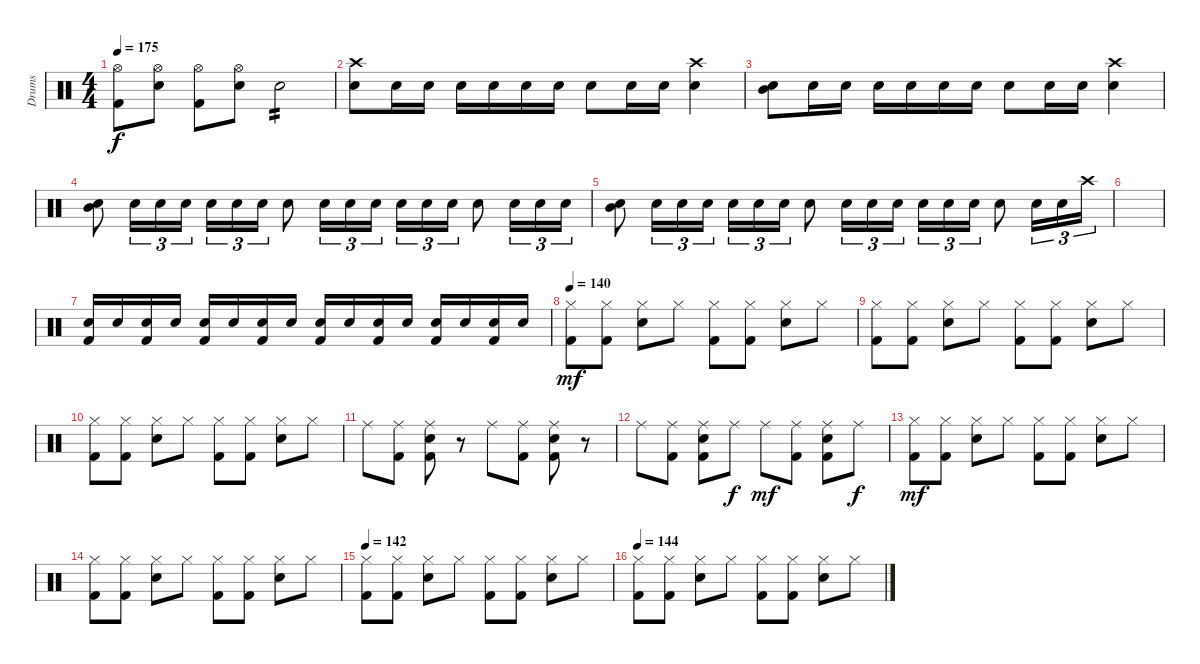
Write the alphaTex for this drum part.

\track ("Drums" "Drums") {instrument percussion}
\staff {score}
\articulation defaults
\ts (4 4)
\tempo 175
\clef neutral
\ks c
("Hi-Hat (open)" "Kick (hit) 2").8{dy f} ("Hi-Hat (open)" "Electric Snare (hit)").8 ("Hi-Hat (open)" "Kick (hit) 2").8 ("Hi-Hat (open)" "Electric Snare (hit)").8 "Electric Snare (hit)".2{tp 2} |
("Crash high (hit)" "Electric Snare (hit)").8 "Electric Snare (hit)".16 "Electric Snare (hit)".16 "Electric Snare (hit)".16 "Electric Snare (hit)".16 "Electric Snare (hit)".16 "Electric Snare (hit)".16 "Electric Snare (hit)".8 "Electric Snare (hit)".16 "Electric Snare (hit)".16 ("Crash high (hit)" "Electric Snare (hit)").4 |
("Mid Tom (hit)" "Electric Snare (hit)").8 "Electric Snare (hit)".16 "Electric Snare (hit)".16 "Electric Snare (hit)".16 "Electric Snare (hit)".16 "Electric Snare (hit)".16 "Electric Snare (hit)".16 "Electric Snare (hit)".8 "Electric Snare (hit)".16 "Electric Snare (hit)".16 ("Crash high (hit)" "Electric Snare (hit)").4 |
("Mid Tom (hit)" "Electric Snare (hit)").8{volume 2} "Electric Snare (hit)".16{tu (3 2)} "Electric Snare (hit)".16{tu (3 2)} "Electric Snare (hit)".16{tu (3 2)} "Electric Snare (hit)".16{tu (3 2)} "Electric Snare (hit)".16{tu (3 2)} "Electric Snare (hit)".16{tu (3 2)} "Electric Snare (hit)".8 "Electric Snare (hit)".16{tu (3 2) volume 3} "Electric Snare (hit)".16{tu (3 2)} "Electric Snare (hit)".16{tu (3 2) beam splitsecondary} "Electric Snare (hit)".16{tu (3 2)} "Electric Snare (hit)".16{tu (3 2)} "Electric Snare (hit)".16{tu (3 2)} "Electric Snare (hit)".8 "Electric Snare (hit)".16{tu (3 2)} "Electric Snare (hit)".16{tu (3 2)} "Electric Snare (hit)".16{tu (3 2)} |
("Mid Tom (hit)" "Electric Snare (hit)").8{volume 5} "Electric Snare (hit)".16{tu (3 2)} "Electric Snare (hit)".16{tu (3 2)} "Electric Snare (hit)".16{tu (3 2)} "Electric Snare (hit)".16{tu (3 2)} "Electric Snare (hit)".16{tu (3 2)} "Electric Snare (hit)".16{tu (3 2)} "Electric Snare (hit)".8 "Electric Snare (hit)".16{tu (3 2) volume 8} "Electric Snare (hit)".16{tu (3 2)} "Electric Snare (hit)".16{tu (3 2) beam splitsecondary} "Electric Snare (hit)".16{tu (3 2)} "Electric Snare (hit)".16{tu (3 2)} "Electric Snare (hit)".16{tu (3 2)} "Electric Snare (hit)".8 "Electric Snare (hit)".16{tu (3 2)} "Electric Snare (hit)".16{tu (3 2)} "Crash high (hit)".16{tu (3 2)} |
|
("Electric Snare (hit)" "Kick (hit) 2").16 "Electric Snare (hit)".16 ("Electric Snare (hit)" "Kick (hit) 2").16 "Electric Snare (hit)".16 ("Electric Snare (hit)" "Kick (hit) 2").16 "Electric Snare (hit)".16 ("Electric Snare (hit)" "Kick (hit) 2").16 "Electric Snare (hit)".16 ("Electric Snare (hit)" "Kick (hit) 2").16 "Electric Snare (hit)".16 ("Electric Snare (hit)" "Kick (hit) 2").16 "Electric Snare (hit)".16 ("Electric Snare (hit)" "Kick (hit) 2").16 "Electric Snare (hit)".16 ("Electric Snare (hit)" "Kick (hit) 2").16 "Electric Snare (hit)".16 |
\tempo 140
("Hi-Hat (closed)" "Kick (hit) 2").8{dy mf} ("Hi-Hat (closed)" "Kick (hit) 2").8 ("Hi-Hat (closed)" "Electric Snare (hit)").8 "Hi-Hat (closed)".8 ("Hi-Hat (closed)" "Kick (hit) 2").8 ("Hi-Hat (closed)" "Kick (hit) 2").8 ("Hi-Hat (closed)" "Electric Snare (hit)").8 "Hi-Hat (closed)".8 |
("Hi-Hat (closed)" "Kick (hit) 2").8 ("Hi-Hat (closed)" "Kick (hit) 2").8 ("Hi-Hat (closed)" "Electric Snare (hit)").8 "Hi-Hat (closed)".8 ("Hi-Hat (closed)" "Kick (hit) 2").8 ("Hi-Hat (closed)" "Kick (hit) 2").8 ("Hi-Hat (closed)" "Electric Snare (hit)").8 "Hi-Hat (closed)".8 |
("Hi-Hat (closed)" "Kick (hit) 2").8 ("Hi-Hat (closed)" "Kick (hit) 2").8 ("Hi-Hat (closed)" "Electric Snare (hit)").8 "Hi-Hat (closed)".8 ("Hi-Hat (closed)" "Kick (hit) 2").8 ("Hi-Hat (closed)" "Kick (hit) 2").8 ("Hi-Hat (closed)" "Electric Snare (hit)").8 "Hi-Hat (closed)".8 |
"Ride (middle)".8 ("Ride (middle)" "Kick (hit) 2").8 ("Ride (middle)" "Electric Snare (hit)" "Kick (hit) 2").8 r.8 "Ride (middle)".8 ("Ride (middle)" "Kick (hit) 2").8 ("Ride (middle)" "Electric Snare (hit)" "Kick (hit) 2").8 r.8 |
"Ride (middle)".8 ("Ride (middle)" "Kick (hit) 2").8 ("Ride (middle)" "Electric Snare (hit)" "Kick (hit) 2").8 "Ride (middle)".8{dy f} "Ride (middle)".8{dy mf} ("Ride (middle)" "Kick (hit) 2").8 ("Ride (middle)" "Electric Snare (hit)" "Kick (hit) 2").8 "Ride (middle)".8{dy f} |
("Hi-Hat (closed)" "Kick (hit) 2").8{dy mf} ("Hi-Hat (closed)" "Kick (hit) 2").8 ("Hi-Hat (closed)" "Electric Snare (hit)").8 "Hi-Hat (closed)".8 ("Hi-Hat (closed)" "Kick (hit) 2").8 ("Hi-Hat (closed)" "Kick (hit) 2").8 ("Hi-Hat (closed)" "Electric Snare (hit)").8 "Hi-Hat (closed)".8 |
("Hi-Hat (closed)" "Kick (hit) 2").8 ("Hi-Hat (closed)" "Kick (hit) 2").8 ("Hi-Hat (closed)" "Electric Snare (hit)").8 "Hi-Hat (closed)".8 ("Hi-Hat (closed)" "Kick (hit) 2").8 ("Hi-Hat (closed)" "Kick (hit) 2").8 ("Hi-Hat (closed)" "Electric Snare (hit)").8 "Hi-Hat (closed)".8 |
\tempo 142
("Hi-Hat (closed)" "Kick (hit) 2").8 ("Hi-Hat (closed)" "Kick (hit) 2").8 ("Hi-Hat (closed)" "Electric Snare (hit)").8 "Hi-Hat (closed)".8 ("Hi-Hat (closed)" "Kick (hit) 2").8 ("Hi-Hat (closed)" "Kick (hit) 2").8 ("Hi-Hat (closed)" "Electric Snare (hit)").8 "Hi-Hat (closed)".8 |
\tempo 144
("Hi-Hat (closed)" "Kick (hit) 2").8 ("Hi-Hat (closed)" "Kick (hit) 2").8 ("Hi-Hat (closed)" "Electric Snare (hit)").8 "Hi-Hat (closed)".8 ("Hi-Hat (closed)" "Kick (hit) 2").8 ("Hi-Hat (closed)" "Kick (hit) 2").8 ("Hi-Hat (closed)" "Electric Snare (hit)").8 "Hi-Hat (closed)".8
